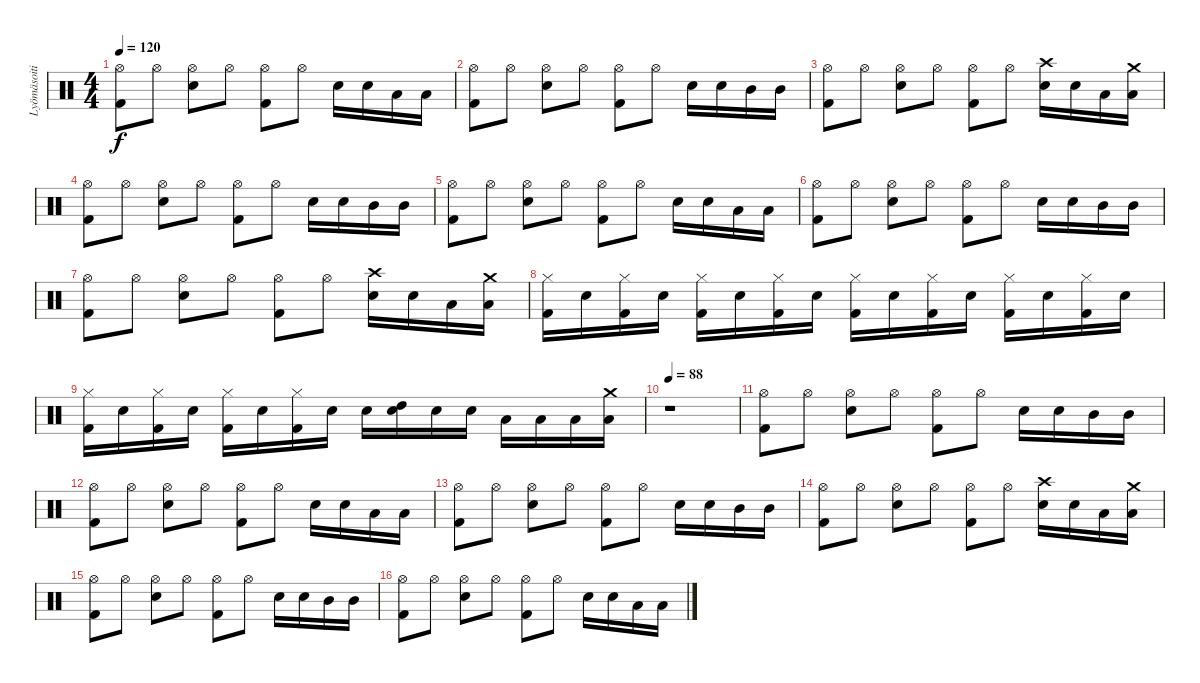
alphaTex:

\track ("Lyömäsoitin" "Lyömäsoiti") {instrument percussion}
\staff {score}
\articulation defaults
\ts (4 4)
\tempo 120
\clef neutral
\ks c
("Hi-Hat (open)" "Kick (hit) 2").8{dy f} "Hi-Hat (open)".8 ("Hi-Hat (open)" "Snare (hit) 2").8 "Hi-Hat (open)".8 ("Hi-Hat (open)" "Kick (hit) 2").8 "Hi-Hat (open)".8 "Snare (hit) 2".16 "Snare (hit) 2".16 "Low Tom (hit)".16 "Low Tom (hit)".16 |
("Hi-Hat (open)" "Kick (hit) 2").8 "Hi-Hat (open)".8 ("Hi-Hat (open)" "Snare (hit) 2").8 "Hi-Hat (open)".8 ("Hi-Hat (open)" "Kick (hit) 2").8 "Hi-Hat (open)".8 "Snare (hit) 2".16 "Snare (hit) 2".16 "Mid Tom (hit)".16 "Mid Tom (hit)".16 |
("Hi-Hat (open)" "Kick (hit) 2").8 "Hi-Hat (open)".8 ("Hi-Hat (open)" "Snare (hit) 2").8 "Hi-Hat (open)".8 ("Hi-Hat (open)" "Kick (hit) 2").8 "Hi-Hat (open)".8 ("Snare (hit) 2" "Crash high (hit)").16 "Snare (hit) 2".16 "Low Tom (hit)".16 ("Low Tom (hit)" "Crash medium (hit)").16 |
("Hi-Hat (open)" "Kick (hit) 2").8 "Hi-Hat (open)".8 ("Hi-Hat (open)" "Snare (hit) 2").8 "Hi-Hat (open)".8 ("Hi-Hat (open)" "Kick (hit) 2").8 "Hi-Hat (open)".8 "Snare (hit) 2".16 "Snare (hit) 2".16 "Mid Tom (hit)".16 "Mid Tom (hit)".16 |
("Hi-Hat (open)" "Kick (hit) 2").8 "Hi-Hat (open)".8 ("Hi-Hat (open)" "Snare (hit) 2").8 "Hi-Hat (open)".8 ("Hi-Hat (open)" "Kick (hit) 2").8 "Hi-Hat (open)".8 "Snare (hit) 2".16 "Snare (hit) 2".16 "Low Tom (hit)".16 "Low Tom (hit)".16 |
("Hi-Hat (open)" "Kick (hit) 2").8 "Hi-Hat (open)".8 ("Hi-Hat (open)" "Snare (hit) 2").8 "Hi-Hat (open)".8 ("Hi-Hat (open)" "Kick (hit) 2").8 "Hi-Hat (open)".8 "Snare (hit) 2".16 "Snare (hit) 2".16 "Mid Tom (hit)".16 "Mid Tom (hit)".16 |
("Hi-Hat (open)" "Kick (hit) 2").8 "Hi-Hat (open)".8 ("Hi-Hat (open)" "Snare (hit) 2").8 "Hi-Hat (open)".8 ("Hi-Hat (open)" "Kick (hit) 2").8 "Hi-Hat (open)".8 ("Snare (hit) 2" "Crash high (hit)").16 "Snare (hit) 2".16 "Low Tom (hit)".16 ("Low Tom (hit)" "Crash medium (hit)").16 |
("Hi-Hat (closed)" "Kick (hit) 2").16 "Snare (hit) 2".16 ("Hi-Hat (closed)" "Kick (hit) 2").16 "Snare (hit) 2".16 ("Hi-Hat (closed)" "Kick (hit) 2").16 "Snare (hit) 2".16 ("Hi-Hat (closed)" "Kick (hit) 2").16 "Snare (hit) 2".16 ("Hi-Hat (closed)" "Kick (hit) 2").16 "Snare (hit) 2".16 ("Hi-Hat (closed)" "Kick (hit) 2").16 "Snare (hit) 2".16 ("Hi-Hat (closed)" "Kick (hit) 2").16 "Snare (hit) 2".16 ("Hi-Hat (closed)" "Kick (hit) 2").16 "Snare (hit) 2".16 |
("Hi-Hat (closed)" "Kick (hit) 2").16 "Snare (hit) 2".16 ("Hi-Hat (closed)" "Kick (hit) 2").16 "Snare (hit) 2".16 ("Hi-Hat (closed)" "Kick (hit) 2").16 "Snare (hit) 2".16 ("Hi-Hat (closed)" "Kick (hit) 2").16 "Snare (hit) 2".16 "Snare (hit) 2".16 ("Snare (hit) 2" "High Tom (hit)").16 "Snare (hit) 2".16 "Snare (hit) 2".16 "Low Tom (hit)".16 "Low Tom (hit)".16 "Low Tom (hit)".16 ("Low Tom (hit)" "Crash medium (hit)").16 |
\tempo 88
r.1 |
("Hi-Hat (open)" "Kick (hit) 2").8 "Hi-Hat (open)".8 ("Hi-Hat (open)" "Snare (hit) 2").8 "Hi-Hat (open)".8 ("Hi-Hat (open)" "Kick (hit) 2").8 "Hi-Hat (open)".8 "Snare (hit) 2".16 "Snare (hit) 2".16 "Mid Tom (hit)".16 "Mid Tom (hit)".16 |
("Hi-Hat (open)" "Kick (hit) 2").8 "Hi-Hat (open)".8 ("Hi-Hat (open)" "Snare (hit) 2").8 "Hi-Hat (open)".8 ("Hi-Hat (open)" "Kick (hit) 2").8 "Hi-Hat (open)".8 "Snare (hit) 2".16 "Snare (hit) 2".16 "Low Tom (hit)".16 "Low Tom (hit)".16 |
("Hi-Hat (open)" "Kick (hit) 2").8 "Hi-Hat (open)".8 ("Hi-Hat (open)" "Snare (hit) 2").8 "Hi-Hat (open)".8 ("Hi-Hat (open)" "Kick (hit) 2").8 "Hi-Hat (open)".8 "Snare (hit) 2".16 "Snare (hit) 2".16 "Mid Tom (hit)".16 "Mid Tom (hit)".16 |
("Hi-Hat (open)" "Kick (hit) 2").8 "Hi-Hat (open)".8 ("Hi-Hat (open)" "Snare (hit) 2").8 "Hi-Hat (open)".8 ("Hi-Hat (open)" "Kick (hit) 2").8 "Hi-Hat (open)".8 ("Snare (hit) 2" "Crash high (hit)").16 "Snare (hit) 2".16 "Low Tom (hit)".16 ("Low Tom (hit)" "Crash medium (hit)").16 |
("Hi-Hat (open)" "Kick (hit) 2").8 "Hi-Hat (open)".8 ("Hi-Hat (open)" "Snare (hit) 2").8 "Hi-Hat (open)".8 ("Hi-Hat (open)" "Kick (hit) 2").8 "Hi-Hat (open)".8 "Snare (hit) 2".16 "Snare (hit) 2".16 "Mid Tom (hit)".16 "Mid Tom (hit)".16 |
("Hi-Hat (open)" "Kick (hit) 2").8 "Hi-Hat (open)".8 ("Hi-Hat (open)" "Snare (hit) 2").8 "Hi-Hat (open)".8 ("Hi-Hat (open)" "Kick (hit) 2").8 "Hi-Hat (open)".8 "Snare (hit) 2".16 "Snare (hit) 2".16 "Low Tom (hit)".16 "Low Tom (hit)".16
